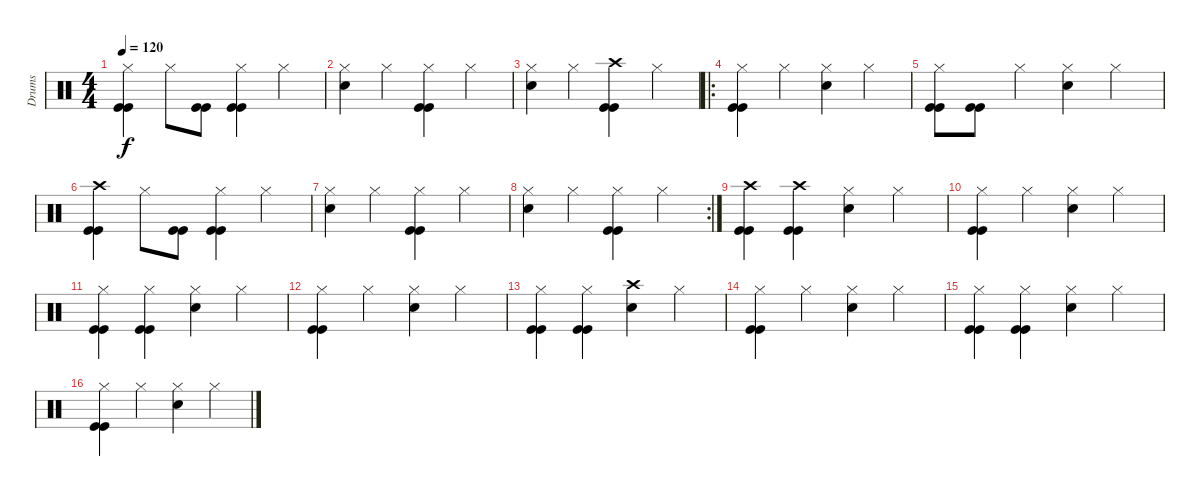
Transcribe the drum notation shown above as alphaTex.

\track ("Drums" "Drums") {instrument percussion}
\staff {score}
\articulation defaults
\ts (4 4)
\tempo 120
\clef neutral
\ks c
("Hi-Hat (closed)" "Kick (hit)" "Kick (hit)").4{dy f} "Hi-Hat (closed)".8 ("Kick (hit)" "Kick (hit)").8 ("Hi-Hat (closed)" "Kick (hit)" "Kick (hit)").4 "Hi-Hat (closed)".4 |
("Hi-Hat (closed)" "Snare (hit) 2").4 "Hi-Hat (closed)".4 ("Hi-Hat (closed)" "Kick (hit)" "Kick (hit)").4 "Hi-Hat (closed)".4 |
("Hi-Hat (closed)" "Snare (hit) 2").4 "Hi-Hat (closed)".4 ("Crash high (hit)" "Kick (hit)" "Kick (hit)").4 "Hi-Hat (closed)".4 |
\ro
("Hi-Hat (closed)" "Kick (hit)" "Kick (hit)").4 "Hi-Hat (closed)".4 ("Hi-Hat (closed)" "Snare (hit) 2").4 "Hi-Hat (closed)".4 |
("Hi-Hat (closed)" "Kick (hit)" "Kick (hit)").8 ("Kick (hit)" "Kick (hit)").8 "Hi-Hat (closed)".4 ("Hi-Hat (closed)" "Snare (hit) 2").4 "Hi-Hat (closed)".4 |
("Crash high (hit)" "Kick (hit)" "Kick (hit)").4 "Hi-Hat (closed)".8 ("Kick (hit)" "Kick (hit)").8 ("Hi-Hat (closed)" "Kick (hit)" "Kick (hit)").4 "Hi-Hat (closed)".4 |
("Hi-Hat (closed)" "Snare (hit) 2").4 "Hi-Hat (closed)".4 ("Hi-Hat (closed)" "Kick (hit)" "Kick (hit)").4 "Hi-Hat (closed)".4 |
\rc 2
("Hi-Hat (closed)" "Snare (hit) 2").4 "Hi-Hat (closed)".4 ("Hi-Hat (closed)" "Kick (hit)" "Kick (hit)").4 "Hi-Hat (closed)".4 |
("Crash high (hit)" "Kick (hit)" "Kick (hit)").4 ("Crash high (hit)" "Kick (hit)" "Kick (hit)").4 ("Hi-Hat (closed)" "Snare (hit) 2").4 "Hi-Hat (closed)".4 |
("Hi-Hat (closed)" "Kick (hit)" "Kick (hit)").4 "Hi-Hat (closed)".4 ("Hi-Hat (closed)" "Snare (hit) 2").4 "Hi-Hat (closed)".4 |
("Hi-Hat (closed)" "Kick (hit)" "Kick (hit)").4 ("Hi-Hat (closed)" "Kick (hit)" "Kick (hit)").4 ("Hi-Hat (closed)" "Snare (hit) 2").4 "Hi-Hat (closed)".4 |
("Hi-Hat (closed)" "Kick (hit)" "Kick (hit)").4 "Hi-Hat (closed)".4 ("Hi-Hat (closed)" "Snare (hit) 2").4 "Hi-Hat (closed)".4 |
("Hi-Hat (closed)" "Kick (hit)" "Kick (hit)").4 ("Hi-Hat (closed)" "Kick (hit)" "Kick (hit)").4 ("Crash high (hit)" "Snare (hit) 2").4 "Hi-Hat (closed)".4 |
("Hi-Hat (closed)" "Kick (hit)" "Kick (hit)").4 "Hi-Hat (closed)".4 ("Hi-Hat (closed)" "Snare (hit) 2").4 "Hi-Hat (closed)".4 |
("Hi-Hat (closed)" "Kick (hit)" "Kick (hit)").4 ("Hi-Hat (closed)" "Kick (hit)" "Kick (hit)").4 ("Hi-Hat (closed)" "Snare (hit) 2").4 "Hi-Hat (closed)".4 |
("Hi-Hat (closed)" "Kick (hit)" "Kick (hit)").4 "Hi-Hat (closed)".4 ("Hi-Hat (closed)" "Snare (hit) 2").4 "Hi-Hat (closed)".4
